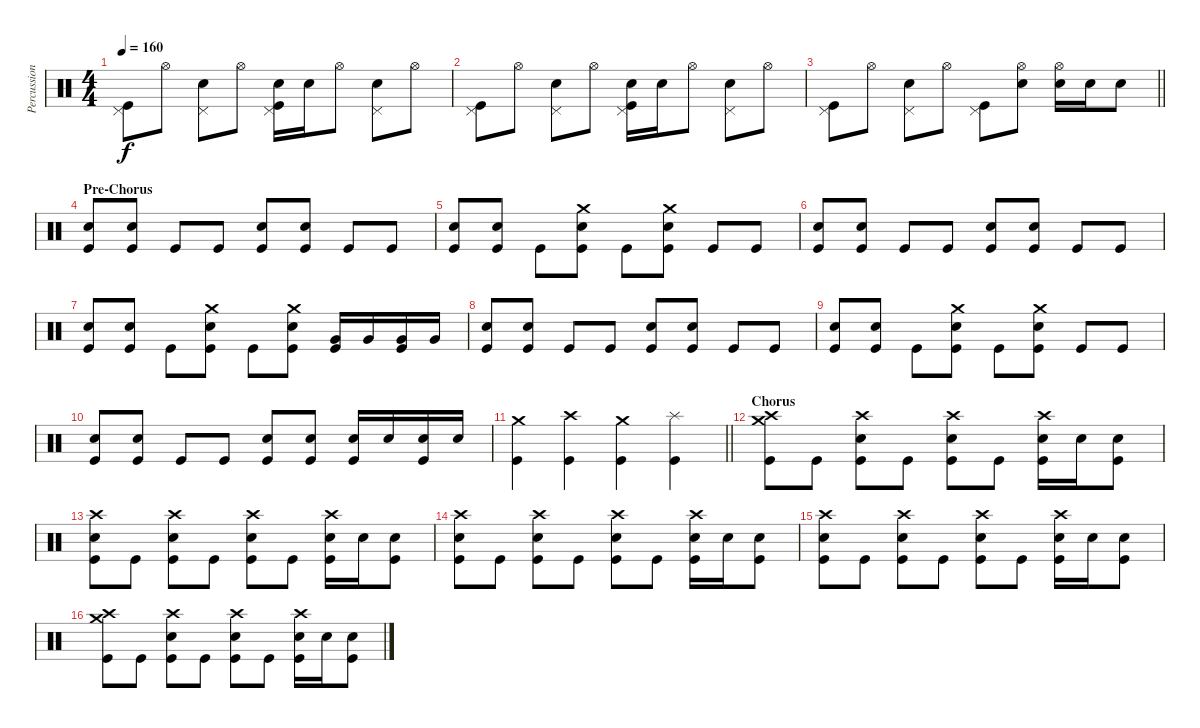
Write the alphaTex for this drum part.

\track ("Percussion" "Percussion") {instrument percussion}
\staff {score}
\articulation defaults
\ts (4 4)
\tempo 160
\clef neutral
\ks c
("Pedal Hi-Hat (hit)" "Kick (hit)").8{dy f} "Hi-Hat (open)".8 ("Pedal Hi-Hat (hit)" "Electric Snare (hit)").8 "Hi-Hat (open)".8 ("Pedal Hi-Hat (hit)" "Electric Snare (hit)" "Kick (hit)").16 "Electric Snare (hit)".16 "Hi-Hat (open)".8 ("Pedal Hi-Hat (hit)" "Electric Snare (hit)").8 "Hi-Hat (open)".8 |
("Pedal Hi-Hat (hit)" "Kick (hit)").8 "Hi-Hat (open)".8 ("Pedal Hi-Hat (hit)" "Electric Snare (hit)").8 "Hi-Hat (open)".8 ("Pedal Hi-Hat (hit)" "Electric Snare (hit)" "Kick (hit)").16 "Electric Snare (hit)".16 "Hi-Hat (open)".8 ("Pedal Hi-Hat (hit)" "Electric Snare (hit)").8 "Hi-Hat (open)".8 |
\barLineRight lightlight
("Pedal Hi-Hat (hit)" "Kick (hit)").8 "Hi-Hat (open)".8 ("Pedal Hi-Hat (hit)" "Electric Snare (hit)").8 "Hi-Hat (open)".8 ("Pedal Hi-Hat (hit)" "Kick (hit)").8 ("Hi-Hat (open)" "Electric Snare (hit)").8 ("Hi-Hat (open)" "Electric Snare (hit)").16 "Electric Snare (hit)".16 "Electric Snare (hit)".8 |
\section ("" "Pre-Chorus")
("Electric Snare (hit)" "Kick (hit)").8 ("Electric Snare (hit)" "Kick (hit)").8 "Kick (hit)".8 "Kick (hit)".8 ("Electric Snare (hit)" "Kick (hit)").8 ("Electric Snare (hit)" "Kick (hit)").8 "Kick (hit)".8 "Kick (hit)".8 |
("Electric Snare (hit)" "Kick (hit)").8 ("Electric Snare (hit)" "Kick (hit)").8 "Kick (hit)".8 ("Crash medium (hit)" "Electric Snare (hit)" "Kick (hit)").8 "Kick (hit)".8 ("Crash medium (hit)" "Electric Snare (hit)" "Kick (hit)").8 "Kick (hit)".8 "Kick (hit)".8 |
("Electric Snare (hit)" "Kick (hit)").8 ("Electric Snare (hit)" "Kick (hit)").8 "Kick (hit)".8 "Kick (hit)".8 ("Electric Snare (hit)" "Kick (hit)").8 ("Electric Snare (hit)" "Kick (hit)").8 "Kick (hit)".8 "Kick (hit)".8 |
("Electric Snare (hit)" "Kick (hit)").8 ("Electric Snare (hit)" "Kick (hit)").8 "Kick (hit)".8 ("Crash medium (hit)" "Electric Snare (hit)" "Kick (hit)").8 "Kick (hit)".8 ("Crash medium (hit)" "Electric Snare (hit)" "Kick (hit)").8 ("Very Low Tom (hit)" "Kick (hit)").16 "Very Low Tom (hit)".16 ("Very Low Tom (hit)" "Kick (hit)").16 "Very Low Tom (hit)".16 |
("Electric Snare (hit)" "Kick (hit)").8 ("Electric Snare (hit)" "Kick (hit)").8 "Kick (hit)".8 "Kick (hit)".8 ("Electric Snare (hit)" "Kick (hit)").8 ("Electric Snare (hit)" "Kick (hit)").8 "Kick (hit)".8 "Kick (hit)".8 |
("Electric Snare (hit)" "Kick (hit)").8 ("Electric Snare (hit)" "Kick (hit)").8 "Kick (hit)".8 ("Crash medium (hit)" "Electric Snare (hit)" "Kick (hit)").8 "Kick (hit)".8 ("Crash medium (hit)" "Electric Snare (hit)" "Kick (hit)").8 "Kick (hit)".8 "Kick (hit)".8 |
("Electric Snare (hit)" "Kick (hit)").8 ("Electric Snare (hit)" "Kick (hit)").8 "Kick (hit)".8 "Kick (hit)".8 ("Electric Snare (hit)" "Kick (hit)").8 ("Electric Snare (hit)" "Kick (hit)").8 ("Electric Snare (hit)" "Kick (hit)").16 "Electric Snare (hit)".16 ("Electric Snare (hit)" "Kick (hit)").16 "Electric Snare (hit)".16 |
\barLineRight lightlight
("Crash medium (hit)" "Kick (hit)").4 ("Crash high (hit)" "Kick (hit)").4 ("Crash medium (hit)" "Kick (hit)").4 ("Splash (hit)" "Kick (hit)").4 |
\section ("" "Chorus")
("Crash high (hit)" "Crash medium (hit)" "Kick (hit)").8 "Kick (hit)".8 ("Crash high (hit)" "Electric Snare (hit)" "Kick (hit)").8 "Kick (hit)".8 ("Crash high (hit)" "Electric Snare (hit)" "Kick (hit)").8 "Kick (hit)".8 ("Crash high (hit)" "Electric Snare (hit)" "Kick (hit)").16 "Electric Snare (hit)".16 ("Electric Snare (hit)" "Kick (hit)").8 |
("Crash high (hit)" "Electric Snare (hit)" "Kick (hit)").8 "Kick (hit)".8 ("Crash high (hit)" "Electric Snare (hit)" "Kick (hit)").8 "Kick (hit)".8 ("Crash high (hit)" "Electric Snare (hit)" "Kick (hit)").8 "Kick (hit)".8 ("Crash high (hit)" "Electric Snare (hit)" "Kick (hit)").16 "Electric Snare (hit)".16 ("Electric Snare (hit)" "Kick (hit)").8 |
("Crash high (hit)" "Electric Snare (hit)" "Kick (hit)").8 "Kick (hit)".8 ("Crash high (hit)" "Electric Snare (hit)" "Kick (hit)").8 "Kick (hit)".8 ("Crash high (hit)" "Electric Snare (hit)" "Kick (hit)").8 "Kick (hit)".8 ("Crash high (hit)" "Electric Snare (hit)" "Kick (hit)").16 "Electric Snare (hit)".16 ("Electric Snare (hit)" "Kick (hit)").8 |
("Crash high (hit)" "Electric Snare (hit)" "Kick (hit)").8 "Kick (hit)".8 ("Crash high (hit)" "Electric Snare (hit)" "Kick (hit)").8 "Kick (hit)".8 ("Crash high (hit)" "Electric Snare (hit)" "Kick (hit)").8 "Kick (hit)".8 ("Crash high (hit)" "Electric Snare (hit)" "Kick (hit)").16 "Electric Snare (hit)".16 ("Electric Snare (hit)" "Kick (hit)").8 |
("Crash high (hit)" "Crash medium (hit)" "Kick (hit)").8 "Kick (hit)".8 ("Crash high (hit)" "Electric Snare (hit)" "Kick (hit)").8 "Kick (hit)".8 ("Crash high (hit)" "Electric Snare (hit)" "Kick (hit)").8 "Kick (hit)".8 ("Crash high (hit)" "Electric Snare (hit)" "Kick (hit)").16 "Electric Snare (hit)".16 ("Electric Snare (hit)" "Kick (hit)").8
